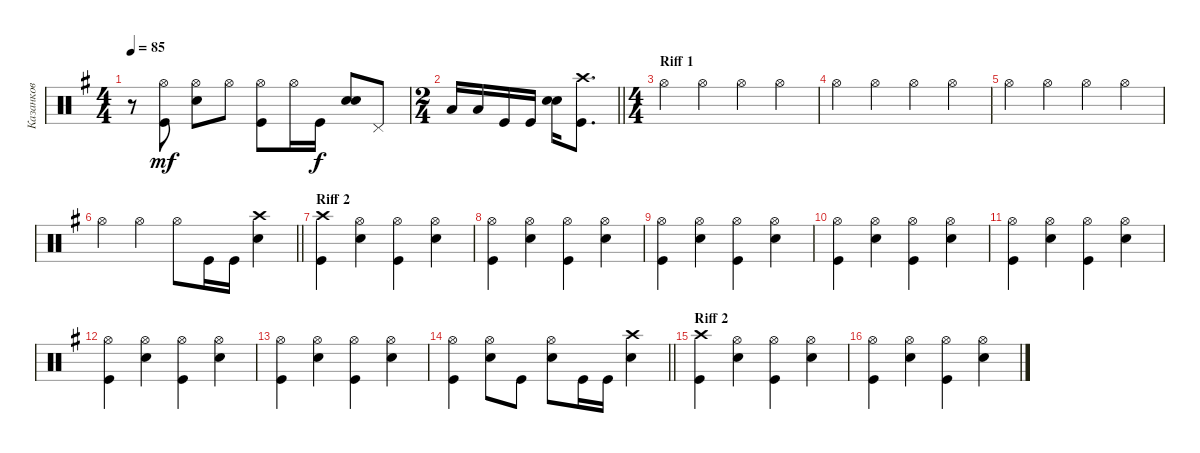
\track ("Казанков" "Казанков") {instrument percussion}
\staff {score}
\articulation defaults
\ts (4 4)
\tempo 85
\clef neutral
\ks eminor
r.8{dy f} ("Hi-Hat (open)" "Kick (hit)").8{dy mf} ("Hi-Hat (open)" "Snare (hit) 2").8 "Hi-Hat (open)".8 ("Hi-Hat (open)" "Kick (hit)").8 "Hi-Hat (open)".16 "Kick (hit)".16{dy f} ("Snare (hit) 2" "Snare (hit) 2").8{bd 480} "Pedal Hi-Hat (hit)".8 |
\ts (2 4)
\barLineRight lightlight "Low Floor Tom (hit)".16 "Low Floor Tom (hit)".16 "Kick (hit)".16 "Kick (hit)".16
("Snare (hit) 2" "Snare (hit) 2").16{bd 240} ("Kick (hit)" "Crash high (hit)").8{d} |
\ts (4 4)
\section ("" "Riff 1")
"Hi-Hat (open)".4 "Hi-Hat (open)".4 "Hi-Hat (open)".4 "Hi-Hat (open)".4 |
"Hi-Hat (open)".4 "Hi-Hat (open)".4 "Hi-Hat (open)".4 "Hi-Hat (open)".4 |
"Hi-Hat (open)".4 "Hi-Hat (open)".4 "Hi-Hat (open)".4 "Hi-Hat (open)".4 |
\barLineRight lightlight "Hi-Hat (open)".4 "Hi-Hat (open)".4 "Hi-Hat (open)".8 "Kick (hit)".16 "Kick (hit)".16
("Snare (hit) 2" "Crash high (hit)").4 |
\section ("" "Riff 2")
("Crash high (hit)" "Kick (hit)").4 ("Hi-Hat (open)" "Snare (hit) 2").4 ("Hi-Hat (open)" "Kick (hit)").4 ("Hi-Hat (open)" "Snare (hit) 2").4 |
("Hi-Hat (open)" "Kick (hit)").4 ("Hi-Hat (open)" "Snare (hit) 2").4 ("Hi-Hat (open)" "Kick (hit)").4 ("Hi-Hat (open)" "Snare (hit) 2").4 |
("Hi-Hat (open)" "Kick (hit)").4 ("Hi-Hat (open)" "Snare (hit) 2").4 ("Hi-Hat (open)" "Kick (hit)").4 ("Hi-Hat (open)" "Snare (hit) 2").4 |
("Hi-Hat (open)" "Kick (hit)").4 ("Hi-Hat (open)" "Snare (hit) 2").4 ("Hi-Hat (open)" "Kick (hit)").4 ("Hi-Hat (open)" "Snare (hit) 2").4 |
("Hi-Hat (open)" "Kick (hit)").4 ("Hi-Hat (open)" "Snare (hit) 2").4 ("Hi-Hat (open)" "Kick (hit)").4 ("Hi-Hat (open)" "Snare (hit) 2").4 |
("Hi-Hat (open)" "Kick (hit)").4 ("Hi-Hat (open)" "Snare (hit) 2").4 ("Hi-Hat (open)" "Kick (hit)").4 ("Hi-Hat (open)" "Snare (hit) 2").4 |
("Hi-Hat (open)" "Kick (hit)").4 ("Hi-Hat (open)" "Snare (hit) 2").4 ("Hi-Hat (open)" "Kick (hit)").4 ("Hi-Hat (open)" "Snare (hit) 2").4 |
\barLineRight lightlight
("Hi-Hat (open)" "Kick (hit)").4 ("Hi-Hat (open)" "Snare (hit) 2").8 "Kick (hit)".8 ("Hi-Hat (open)" "Snare (hit) 2").8 "Kick (hit)".16 "Kick (hit)".16 ("Crash high (hit)" "Snare (hit) 2").4 |
\section ("" "Riff 2")
("Crash high (hit)" "Kick (hit)").4 ("Hi-Hat (open)" "Snare (hit) 2").4 ("Hi-Hat (open)" "Kick (hit)").4 ("Hi-Hat (open)" "Snare (hit) 2").4 |
("Hi-Hat (open)" "Kick (hit)").4 ("Hi-Hat (open)" "Snare (hit) 2").4 ("Hi-Hat (open)" "Kick (hit)").4 ("Hi-Hat (open)" "Snare (hit) 2").4
